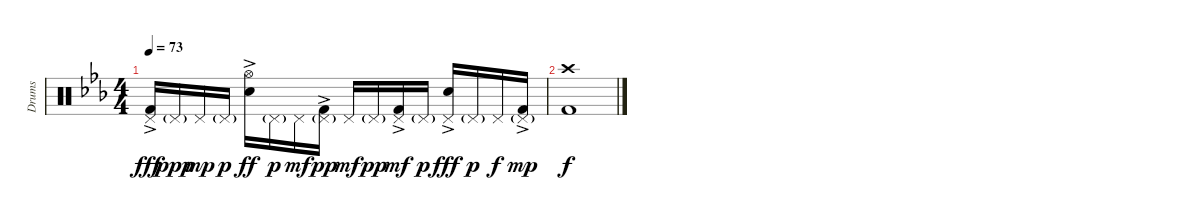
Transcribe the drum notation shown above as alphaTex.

\track ("Drums" "Drums") {instrument percussion}
\staff {score}
\articulation defaults
\ts (4 4)
\tempo 73
\clef neutral
\ks eb
("Kick (hit) 2"{ac} "Pedal Hi-Hat (hit)").16{dy fff} "Pedal Hi-Hat (hit)"{g}.16{dy ppp} "Pedal Hi-Hat (hit)".16{dy mp} "Pedal Hi-Hat (hit)"{g}.16{dy p} ("Snare (hit) 2"{ac} "Hi-Hat (open)").16{dy ff} "Pedal Hi-Hat (hit)"{g}.16{dy p} "Pedal Hi-Hat (hit)".16{dy mf} ("Kick (hit) 2"{ac} "Pedal Hi-Hat (hit)"{g}).16{dy pp} "Pedal Hi-Hat (hit)".16{dy mf} "Pedal Hi-Hat (hit)"{g}.16{dy pp} ("Kick (hit) 2"{ac} "Pedal Hi-Hat (hit)").16{dy mf} "Pedal Hi-Hat (hit)"{g}.16{dy p} ("Snare (hit) 2"{ac} "Pedal Hi-Hat (hit)").16{dy fff} "Pedal Hi-Hat (hit)"{g}.16{dy p} "Pedal Hi-Hat (hit)".16{dy f} ("Kick (hit) 2"{ac} "Pedal Hi-Hat (hit)"{g}).16{dy mp} |
("Kick (hit) 2" "Crash high (hit)").1{dy f}
